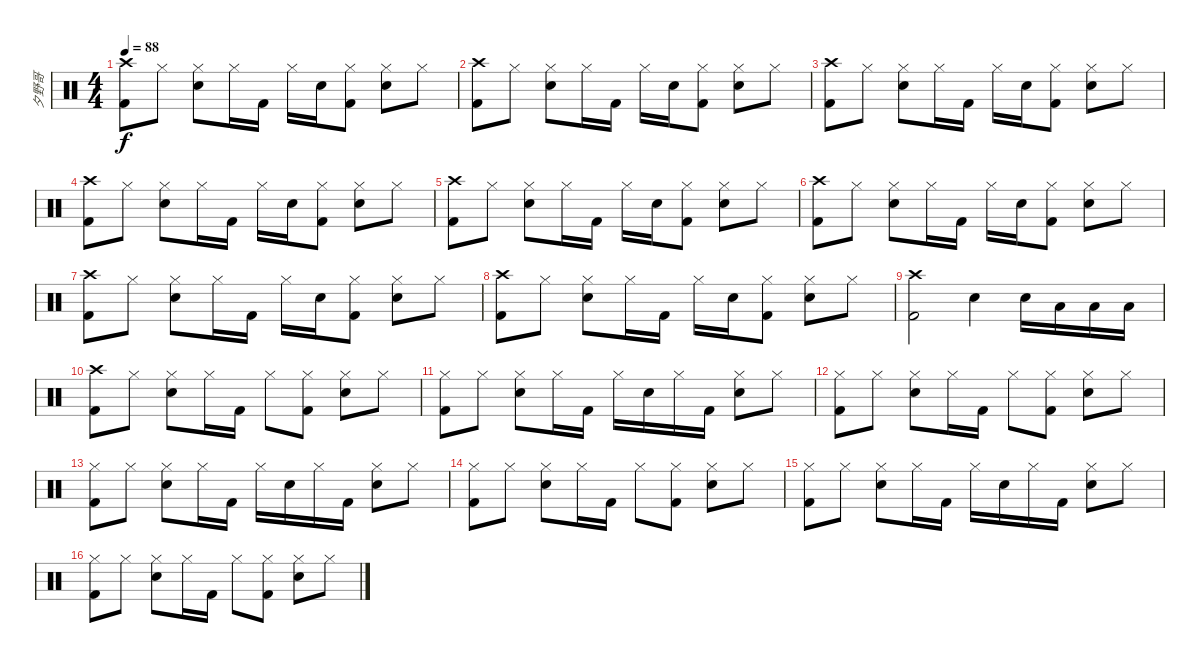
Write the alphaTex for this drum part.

\track ("夕野哥" "夕野哥") {instrument percussion}
\staff {score}
\articulation defaults
\ts (4 4)
\tempo 88
\clef neutral
\ks c
("Crash high (hit)" "Kick (hit) 2").8{dy f} "Hi-Hat (closed)".8 ("Hi-Hat (closed)" "Electric Snare (hit)").8 "Hi-Hat (closed)".16 "Kick (hit) 2".16 "Hi-Hat (closed)".16 "Electric Snare (hit)".16 ("Hi-Hat (closed)" "Kick (hit) 2").8 ("Hi-Hat (closed)" "Electric Snare (hit)").8 "Hi-Hat (closed)".8 |
("Crash high (hit)" "Kick (hit) 2").8 "Hi-Hat (closed)".8 ("Hi-Hat (closed)" "Electric Snare (hit)").8 "Hi-Hat (closed)".16 "Kick (hit) 2".16 "Hi-Hat (closed)".16 "Electric Snare (hit)".16 ("Hi-Hat (closed)" "Kick (hit) 2").8 ("Hi-Hat (closed)" "Electric Snare (hit)").8 "Hi-Hat (closed)".8 |
("Crash high (hit)" "Kick (hit) 2").8 "Hi-Hat (closed)".8 ("Hi-Hat (closed)" "Electric Snare (hit)").8 "Hi-Hat (closed)".16 "Kick (hit) 2".16 "Hi-Hat (closed)".16 "Electric Snare (hit)".16 ("Hi-Hat (closed)" "Kick (hit) 2").8 ("Hi-Hat (closed)" "Electric Snare (hit)").8 "Hi-Hat (closed)".8 |
("Crash high (hit)" "Kick (hit) 2").8 "Hi-Hat (closed)".8 ("Hi-Hat (closed)" "Electric Snare (hit)").8 "Hi-Hat (closed)".16 "Kick (hit) 2".16 "Hi-Hat (closed)".16 "Electric Snare (hit)".16 ("Hi-Hat (closed)" "Kick (hit) 2").8 ("Hi-Hat (closed)" "Electric Snare (hit)").8 "Hi-Hat (closed)".8 |
("Crash high (hit)" "Kick (hit) 2").8 "Hi-Hat (closed)".8 ("Hi-Hat (closed)" "Electric Snare (hit)").8 "Hi-Hat (closed)".16 "Kick (hit) 2".16 "Hi-Hat (closed)".16 "Electric Snare (hit)".16 ("Hi-Hat (closed)" "Kick (hit) 2").8 ("Hi-Hat (closed)" "Electric Snare (hit)").8 "Hi-Hat (closed)".8 |
("Crash high (hit)" "Kick (hit) 2").8 "Hi-Hat (closed)".8 ("Hi-Hat (closed)" "Electric Snare (hit)").8 "Hi-Hat (closed)".16 "Kick (hit) 2".16 "Hi-Hat (closed)".16 "Electric Snare (hit)".16 ("Hi-Hat (closed)" "Kick (hit) 2").8 ("Hi-Hat (closed)" "Electric Snare (hit)").8 "Hi-Hat (closed)".8 |
("Crash high (hit)" "Kick (hit) 2").8 "Hi-Hat (closed)".8 ("Hi-Hat (closed)" "Electric Snare (hit)").8 "Hi-Hat (closed)".16 "Kick (hit) 2".16 "Hi-Hat (closed)".16 "Electric Snare (hit)".16 ("Hi-Hat (closed)" "Kick (hit) 2").8 ("Hi-Hat (closed)" "Electric Snare (hit)").8 "Hi-Hat (closed)".8 |
("Crash high (hit)" "Kick (hit) 2").8 "Hi-Hat (closed)".8 ("Hi-Hat (closed)" "Electric Snare (hit)").8 "Hi-Hat (closed)".16 "Kick (hit) 2".16 "Hi-Hat (closed)".16 "Electric Snare (hit)".16 ("Hi-Hat (closed)" "Kick (hit) 2").8 ("Hi-Hat (closed)" "Electric Snare (hit)").8 "Hi-Hat (closed)".8 |
("Crash high (hit)" "Kick (hit) 2").2 "Electric Snare (hit)".4 "Electric Snare (hit)".16 "Low Floor Tom (hit)".16 "Low Tom (hit)".16 "Low Tom (hit)".16 |
("Crash high (hit)" "Kick (hit) 2").8 "Hi-Hat (closed)".8 ("Hi-Hat (closed)" "Electric Snare (hit)").8 "Hi-Hat (closed)".16 "Kick (hit) 2".16 "Hi-Hat (closed)".8 ("Hi-Hat (closed)" "Kick (hit) 2").8 ("Hi-Hat (closed)" "Electric Snare (hit)").8 "Hi-Hat (closed)".8 |
("Hi-Hat (closed)" "Kick (hit) 2").8 "Hi-Hat (closed)".8 ("Hi-Hat (closed)" "Electric Snare (hit)").8 "Hi-Hat (closed)".16 "Kick (hit) 2".16 "Hi-Hat (closed)".16 "Electric Snare (hit)".16 "Hi-Hat (closed)".16 "Kick (hit) 2".16 ("Hi-Hat (closed)" "Electric Snare (hit)").8 "Hi-Hat (closed)".8 |
("Hi-Hat (closed)" "Kick (hit) 2").8 "Hi-Hat (closed)".8 ("Hi-Hat (closed)" "Electric Snare (hit)").8 "Hi-Hat (closed)".16 "Kick (hit) 2".16 "Hi-Hat (closed)".8 ("Hi-Hat (closed)" "Kick (hit) 2").8 ("Hi-Hat (closed)" "Electric Snare (hit)").8 "Hi-Hat (closed)".8 |
("Hi-Hat (closed)" "Kick (hit) 2").8 "Hi-Hat (closed)".8 ("Hi-Hat (closed)" "Electric Snare (hit)").8 "Hi-Hat (closed)".16 "Kick (hit) 2".16 "Hi-Hat (closed)".16 "Electric Snare (hit)".16 "Hi-Hat (closed)".16 "Kick (hit) 2".16 ("Hi-Hat (closed)" "Electric Snare (hit)").8 "Hi-Hat (closed)".8 |
("Hi-Hat (closed)" "Kick (hit) 2").8 "Hi-Hat (closed)".8 ("Hi-Hat (closed)" "Electric Snare (hit)").8 "Hi-Hat (closed)".16 "Kick (hit) 2".16 "Hi-Hat (closed)".8 ("Hi-Hat (closed)" "Kick (hit) 2").8 ("Hi-Hat (closed)" "Electric Snare (hit)").8 "Hi-Hat (closed)".8 |
("Hi-Hat (closed)" "Kick (hit) 2").8 "Hi-Hat (closed)".8 ("Hi-Hat (closed)" "Electric Snare (hit)").8 "Hi-Hat (closed)".16 "Kick (hit) 2".16 "Hi-Hat (closed)".16 "Electric Snare (hit)".16 "Hi-Hat (closed)".16 "Kick (hit) 2".16 ("Hi-Hat (closed)" "Electric Snare (hit)").8 "Hi-Hat (closed)".8 |
("Hi-Hat (closed)" "Kick (hit) 2").8 "Hi-Hat (closed)".8 ("Hi-Hat (closed)" "Electric Snare (hit)").8 "Hi-Hat (closed)".16 "Kick (hit) 2".16 "Hi-Hat (closed)".8 ("Hi-Hat (closed)" "Kick (hit) 2").8 ("Hi-Hat (closed)" "Electric Snare (hit)").8 "Hi-Hat (closed)".8
